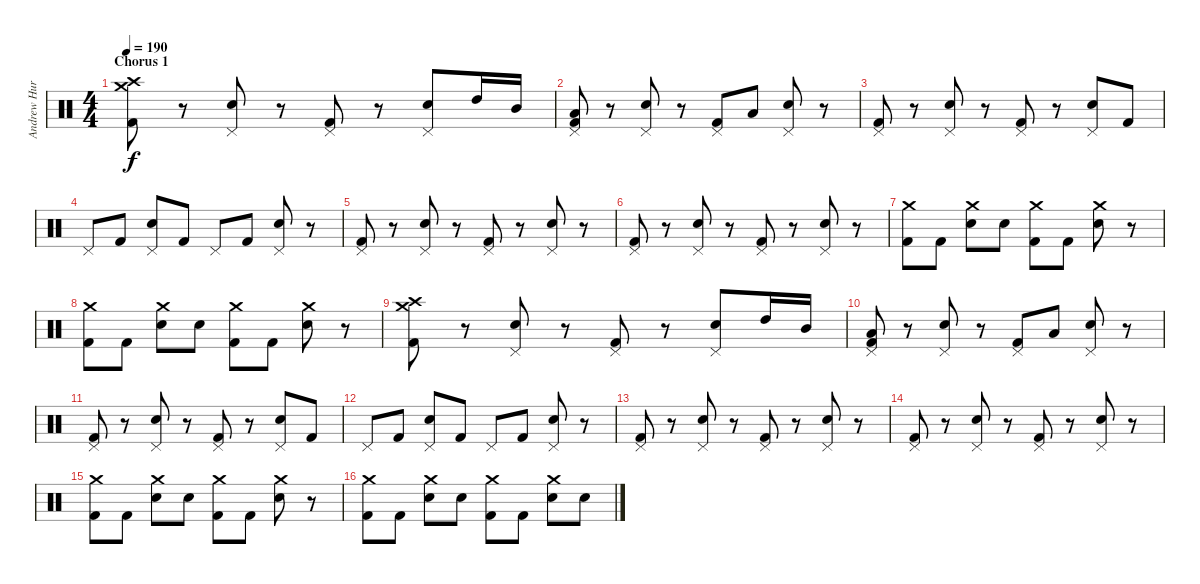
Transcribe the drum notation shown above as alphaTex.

\track ("Andrew Hurley (Drums)" "Andrew Hur") {instrument percussion}
\staff {score}
\articulation defaults
\ts (4 4)
\section ("" "Chorus 1")
\tempo 190
\clef neutral
\ks c
("Crash high (hit)" "Crash medium (hit)" "Kick (hit) 2").8{dy f} r.8 ("Pedal Hi-Hat (hit)" "Electric Snare (hit)").8 r.8 ("Pedal Hi-Hat (hit)" "Kick (hit) 2").8 r.8 ("Pedal Hi-Hat (hit)" "Electric Snare (hit)").8 "High Tom (hit)".16 "Mid Tom (hit)".16 |
("Pedal Hi-Hat (hit)" "Low Tom (hit)" "Kick (hit) 2").8 r.8 ("Pedal Hi-Hat (hit)" "Electric Snare (hit)").8 r.8 ("Pedal Hi-Hat (hit)" "Kick (hit) 2").8 "Low Tom (hit)".8 ("Pedal Hi-Hat (hit)" "Electric Snare (hit)").8 r.8 |
("Pedal Hi-Hat (hit)" "Kick (hit) 2").8 r.8 ("Pedal Hi-Hat (hit)" "Electric Snare (hit)").8 r.8 ("Pedal Hi-Hat (hit)" "Kick (hit) 2").8 r.8 ("Pedal Hi-Hat (hit)" "Electric Snare (hit)").8 "Kick (hit) 2".8 |
"Pedal Hi-Hat (hit)".8 "Kick (hit) 2".8 ("Pedal Hi-Hat (hit)" "Electric Snare (hit)").8 "Kick (hit) 2".8 "Pedal Hi-Hat (hit)".8 "Kick (hit) 2".8 ("Pedal Hi-Hat (hit)" "Electric Snare (hit)").8 r.8 |
("Pedal Hi-Hat (hit)" "Kick (hit) 2").8 r.8 ("Pedal Hi-Hat (hit)" "Electric Snare (hit)").8 r.8 ("Pedal Hi-Hat (hit)" "Kick (hit) 2").8 r.8 ("Pedal Hi-Hat (hit)" "Electric Snare (hit)").8 r.8 |
("Pedal Hi-Hat (hit)" "Kick (hit) 2").8 r.8 ("Pedal Hi-Hat (hit)" "Electric Snare (hit)").8 r.8 ("Pedal Hi-Hat (hit)" "Kick (hit) 2").8 r.8 ("Pedal Hi-Hat (hit)" "Electric Snare (hit)").8 r.8 |
("Crash medium (hit)" "Kick (hit) 2").8 "Kick (hit) 2".8 ("Crash medium (hit)" "Electric Snare (hit)").8 "Electric Snare (hit)".8 ("Crash medium (hit)" "Kick (hit) 2").8 "Kick (hit) 2".8 ("Crash medium (hit)" "Electric Snare (hit)").8 r.8 |
("Crash medium (hit)" "Kick (hit) 2").8 "Kick (hit) 2".8 ("Crash medium (hit)" "Electric Snare (hit)").8 "Electric Snare (hit)".8 ("Crash medium (hit)" "Kick (hit) 2").8 "Kick (hit) 2".8 ("Crash medium (hit)" "Electric Snare (hit)").8 r.8 |
("Crash high (hit)" "Crash medium (hit)" "Kick (hit) 2").8 r.8 ("Pedal Hi-Hat (hit)" "Electric Snare (hit)").8 r.8 ("Pedal Hi-Hat (hit)" "Kick (hit) 2").8 r.8 ("Pedal Hi-Hat (hit)" "Electric Snare (hit)").8 "High Tom (hit)".16 "Mid Tom (hit)".16 |
("Pedal Hi-Hat (hit)" "Low Tom (hit)" "Kick (hit) 2").8 r.8 ("Pedal Hi-Hat (hit)" "Electric Snare (hit)").8 r.8 ("Pedal Hi-Hat (hit)" "Kick (hit) 2").8 "Low Tom (hit)".8 ("Pedal Hi-Hat (hit)" "Electric Snare (hit)").8 r.8 |
("Pedal Hi-Hat (hit)" "Kick (hit) 2").8 r.8 ("Pedal Hi-Hat (hit)" "Electric Snare (hit)").8 r.8 ("Pedal Hi-Hat (hit)" "Kick (hit) 2").8 r.8 ("Pedal Hi-Hat (hit)" "Electric Snare (hit)").8 "Kick (hit) 2".8 |
"Pedal Hi-Hat (hit)".8 "Kick (hit) 2".8 ("Pedal Hi-Hat (hit)" "Electric Snare (hit)").8 "Kick (hit) 2".8 "Pedal Hi-Hat (hit)".8 "Kick (hit) 2".8 ("Pedal Hi-Hat (hit)" "Electric Snare (hit)").8 r.8 |
("Pedal Hi-Hat (hit)" "Kick (hit) 2").8 r.8 ("Pedal Hi-Hat (hit)" "Electric Snare (hit)").8 r.8 ("Pedal Hi-Hat (hit)" "Kick (hit) 2").8 r.8 ("Pedal Hi-Hat (hit)" "Electric Snare (hit)").8 r.8 |
("Pedal Hi-Hat (hit)" "Kick (hit) 2").8 r.8 ("Pedal Hi-Hat (hit)" "Electric Snare (hit)").8 r.8 ("Pedal Hi-Hat (hit)" "Kick (hit) 2").8 r.8 ("Pedal Hi-Hat (hit)" "Electric Snare (hit)").8 r.8 |
("Crash medium (hit)" "Kick (hit) 2").8 "Kick (hit) 2".8 ("Crash medium (hit)" "Electric Snare (hit)").8 "Electric Snare (hit)".8 ("Crash medium (hit)" "Kick (hit) 2").8 "Kick (hit) 2".8 ("Crash medium (hit)" "Electric Snare (hit)").8 r.8 |
("Crash medium (hit)" "Kick (hit) 2").8 "Kick (hit) 2".8 ("Crash medium (hit)" "Electric Snare (hit)").8 "Electric Snare (hit)".8 ("Crash medium (hit)" "Kick (hit) 2").8 "Kick (hit) 2".8 ("Crash medium (hit)" "Electric Snare (hit)").8 "Electric Snare (hit)".8
